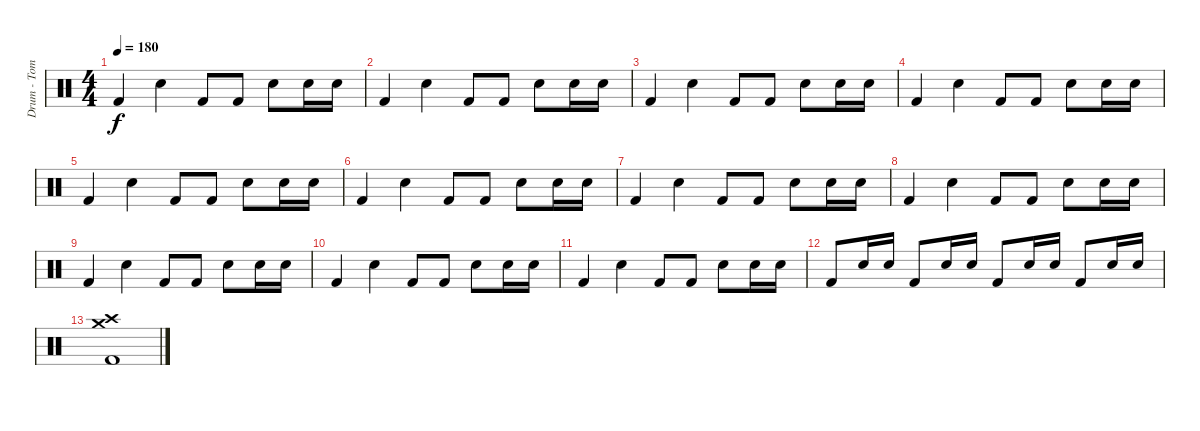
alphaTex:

\track ("Drum - Tom" "Drum - Tom") {instrument percussion}
\staff {score}
\articulation defaults
\ts (4 4)
\tempo 180
\clef neutral
\ks c "Kick (hit) 2".4{dy f} "Snare (hit) 2".4 "Kick (hit) 2".8 "Kick (hit) 2".8 "Snare (hit) 2".8 "Electric Snare (hit)".16 "Electric Snare (hit)".16
|
"Kick (hit) 2".4 "Snare (hit) 2".4 "Kick (hit) 2".8 "Kick (hit) 2".8 "Snare (hit) 2".8 "Electric Snare (hit)".16 "Electric Snare (hit)".16 |
"Kick (hit) 2".4 "Snare (hit) 2".4 "Kick (hit) 2".8 "Kick (hit) 2".8 "Snare (hit) 2".8 "Electric Snare (hit)".16 "Electric Snare (hit)".16 |
"Kick (hit) 2".4 "Snare (hit) 2".4 "Kick (hit) 2".8 "Kick (hit) 2".8 "Snare (hit) 2".8 "Electric Snare (hit)".16 "Electric Snare (hit)".16 |
"Kick (hit) 2".4 "Snare (hit) 2".4 "Kick (hit) 2".8 "Kick (hit) 2".8 "Snare (hit) 2".8 "Electric Snare (hit)".16 "Electric Snare (hit)".16 |
"Kick (hit) 2".4 "Snare (hit) 2".4 "Kick (hit) 2".8 "Kick (hit) 2".8 "Snare (hit) 2".8 "Electric Snare (hit)".16 "Electric Snare (hit)".16 |
"Kick (hit) 2".4 "Snare (hit) 2".4 "Kick (hit) 2".8 "Kick (hit) 2".8 "Snare (hit) 2".8 "Electric Snare (hit)".16 "Electric Snare (hit)".16 |
"Kick (hit) 2".4 "Snare (hit) 2".4 "Kick (hit) 2".8 "Kick (hit) 2".8 "Snare (hit) 2".8 "Electric Snare (hit)".16 "Electric Snare (hit)".16 |
"Kick (hit) 2".4 "Snare (hit) 2".4 "Kick (hit) 2".8 "Kick (hit) 2".8 "Snare (hit) 2".8 "Electric Snare (hit)".16 "Electric Snare (hit)".16 |
"Kick (hit) 2".4 "Snare (hit) 2".4 "Kick (hit) 2".8 "Kick (hit) 2".8 "Snare (hit) 2".8 "Electric Snare (hit)".16 "Electric Snare (hit)".16 |
"Kick (hit) 2".4 "Snare (hit) 2".4 "Kick (hit) 2".8 "Kick (hit) 2".8 "Snare (hit) 2".8 "Electric Snare (hit)".16 "Electric Snare (hit)".16 |
"Kick (hit) 2".8 "Snare (hit) 2".16 "Snare (hit) 2".16 "Kick (hit) 2".8 "Snare (hit) 2".16 "Snare (hit) 2".16 "Kick (hit) 2".8 "Snare (hit) 2".16 "Snare (hit) 2".16 "Kick (hit) 2".8 "Snare (hit) 2".16 "Snare (hit) 2".16 |
("Crash high (hit)" "Crash medium (hit)" "Kick (hit) 2").1
